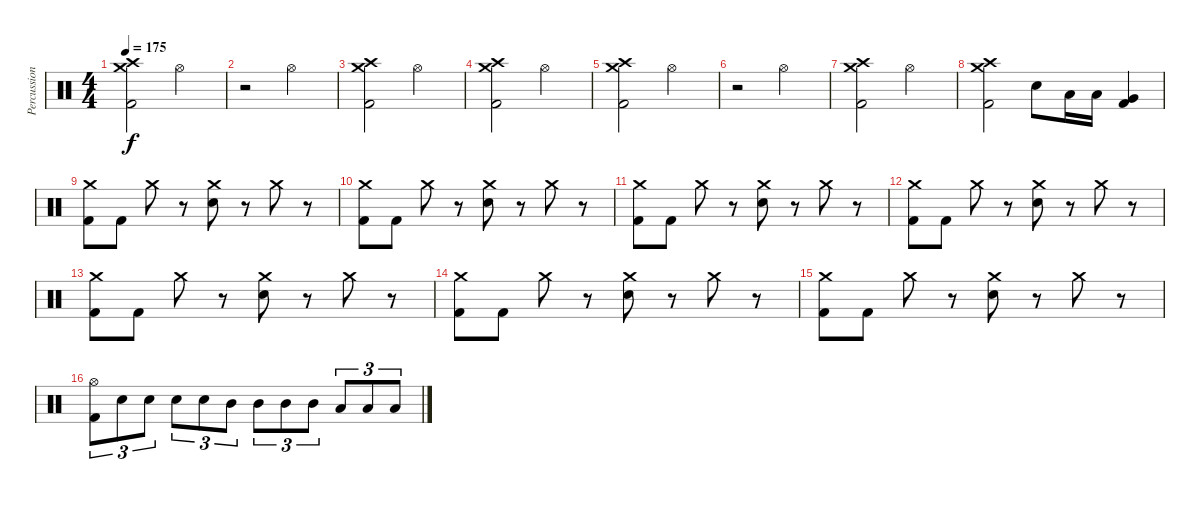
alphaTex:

\track ("Percussion" "Percussion") {instrument percussion}
\staff {score}
\articulation defaults
\ts (4 4)
\tempo 175
\clef neutral
\ks c
("Kick (hit) 2" "Crash medium (hit)" "Crash high (hit)").2{dy f} "Hi-Hat (open)".2 |
r.2 "Hi-Hat (open)".2 |
("Kick (hit) 2" "Crash high (hit)" "Crash medium (hit)").2 "Hi-Hat (open)".2 |
("Kick (hit) 2" "Crash high (hit)" "Crash medium (hit)").2 "Hi-Hat (open)".2 |
("Kick (hit) 2" "Crash medium (hit)" "Crash high (hit)").2 "Hi-Hat (open)".2 |
r.2 "Hi-Hat (open)".2 |
("Kick (hit) 2" "Crash high (hit)" "Crash medium (hit)").2 "Hi-Hat (open)".2 |
("Kick (hit) 2" "Crash medium (hit)" "Crash high (hit)").2 "Electric Snare (hit)".8 "Low Tom (hit)".16 "Low Tom (hit)".16 ("Kick (hit) 2" "Very Low Tom (hit)").4 |
("Kick (hit) 2" "Crash medium (hit)").8 "Kick (hit) 2".8 "Crash medium (hit)".8 r.8 ("Electric Snare (hit)" "Crash medium (hit)").8 r.8 "Crash medium (hit)".8 r.8 |
("Kick (hit) 2" "Crash medium (hit)").8 "Kick (hit) 2".8 "Crash medium (hit)".8 r.8 ("Electric Snare (hit)" "Crash medium (hit)").8 r.8 "Crash medium (hit)".8 r.8 |
("Kick (hit) 2" "Crash medium (hit)").8 "Kick (hit) 2".8 "Crash medium (hit)".8 r.8 ("Electric Snare (hit)" "Crash medium (hit)").8 r.8 "Crash medium (hit)".8 r.8 |
("Kick (hit) 2" "Crash medium (hit)").8 "Kick (hit) 2".8 "Crash medium (hit)".8 r.8 ("Electric Snare (hit)" "Crash medium (hit)").8 r.8 "Crash medium (hit)".8 r.8 |
("Kick (hit) 2" "Crash medium (hit)").8 "Kick (hit) 2".8 "Crash medium (hit)".8 r.8 ("Electric Snare (hit)" "Crash medium (hit)").8 r.8 "Crash medium (hit)".8 r.8 |
("Kick (hit) 2" "Crash medium (hit)").8 "Kick (hit) 2".8 "Crash medium (hit)".8 r.8 ("Electric Snare (hit)" "Crash medium (hit)").8 r.8 "Crash medium (hit)".8 r.8 |
("Kick (hit) 2" "Crash medium (hit)").8 "Kick (hit) 2".8 "Crash medium (hit)".8 r.8 ("Electric Snare (hit)" "Crash medium (hit)").8 r.8 "Crash medium (hit)".8 r.8 |
("Kick (hit) 2" "Hi-Hat (open)").8{tu (3 2)} "Electric Snare (hit)".8{tu (3 2)} "Electric Snare (hit)".8{tu (3 2)} "Electric Snare (hit)".8{tu (3 2)} "Electric Snare (hit)".8{tu (3 2)} "Mid Tom (hit)".8{tu (3 2)} "Mid Tom (hit)".8{tu (3 2)} "Mid Tom (hit)".8{tu (3 2)} "Mid Tom (hit)".8{tu (3 2)} "Low Tom (hit)".8{tu (3 2)} "Low Tom (hit)".8{tu (3 2)} "Low Tom (hit)".8{tu (3 2)}
